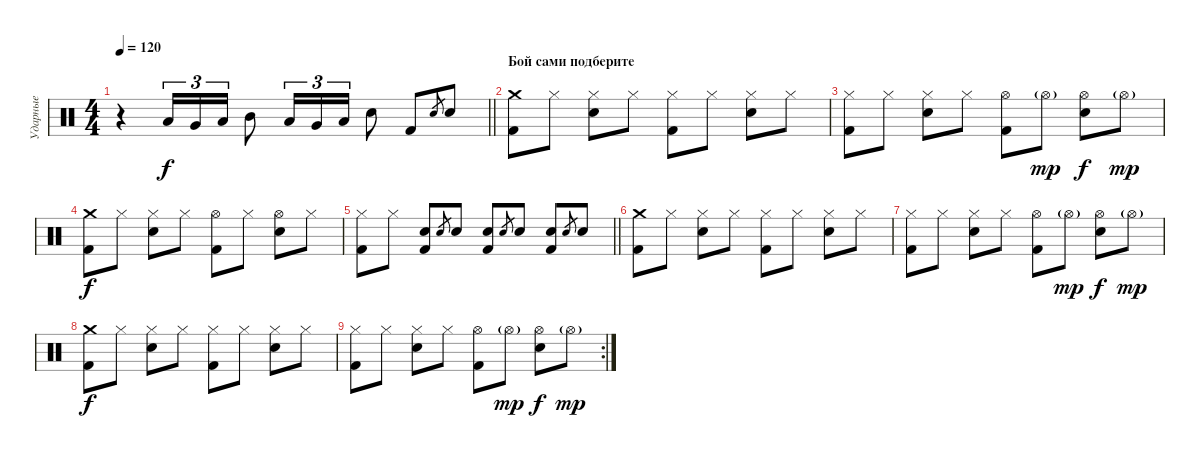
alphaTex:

\track ("Ударные" "Ударные") {instrument percussion}
\staff {score}
\articulation defaults
\ts (4 4)
\tempo 120
\clef neutral
\barLineRight lightlight
\ks c
r.4{dy f} "Low Floor Tom (hit)".16{tu (3 2)} "Very Low Tom (hit)".16{tu (3 2)} "Low Tom (hit)".16{tu (3 2)} "Mid Tom (hit)".8 "Low Floor Tom (hit)".16{tu (3 2)} "Very Low Tom (hit)".16{tu (3 2)} "Low Tom (hit)".16{tu (3 2)} "Electric Snare (hit)".8 "Kick (hit) 2".8 "Electric Snare (hit)".8{gr} "Electric Snare (hit)".8 |
\section ("" "Бой сами подберите")
("Crash medium (hit)" "Kick (hit) 2").8 "Hi-Hat (closed)".8 ("Snare (hit) 2" "Hi-Hat (closed)").8 "Hi-Hat (closed)".8 ("Kick (hit) 2" "Hi-Hat (closed)").8 "Hi-Hat (closed)".8 ("Snare (hit) 2" "Hi-Hat (closed)").8 "Hi-Hat (closed)".8 |
("Kick (hit) 2" "Hi-Hat (closed)").8 "Hi-Hat (closed)".8 ("Snare (hit) 2" "Hi-Hat (closed)").8 "Hi-Hat (closed)".8 ("Kick (hit) 2" "Hi-Hat (open)").8 "Hi-Hat (open)"{g}.8{dy mp} ("Snare (hit) 2" "Hi-Hat (open)").8{dy f} "Hi-Hat (open)"{g}.8{dy mp} |
("Crash medium (hit)" "Kick (hit) 2").8{dy f} "Hi-Hat (closed)".8 ("Snare (hit) 2" "Hi-Hat (closed)").8 "Hi-Hat (closed)".8 ("Kick (hit) 2" "Hi-Hat (open)").8 "Hi-Hat (closed)".8 ("Snare (hit) 2" "Hi-Hat (open)").8 "Hi-Hat (closed)".8 |
\barLineRight lightlight
("Kick (hit) 2" "Hi-Hat (closed)").8 "Hi-Hat (closed)".8 ("Snare (hit) 2" "Kick (hit) 2").8 "Electric Snare (hit)".8{gr} "Electric Snare (hit)".8 ("Snare (hit) 2" "Kick (hit) 2").8 "Electric Snare (hit)".8{gr} "Electric Snare (hit)".8 ("Snare (hit) 2" "Kick (hit) 2").8 "Electric Snare (hit)".8{gr} "Electric Snare (hit)".8 |
("Crash medium (hit)" "Kick (hit) 2").8 "Hi-Hat (closed)".8 ("Snare (hit) 2" "Hi-Hat (closed)").8 "Hi-Hat (closed)".8 ("Kick (hit) 2" "Hi-Hat (closed)").8 "Hi-Hat (closed)".8 ("Snare (hit) 2" "Hi-Hat (closed)").8 "Hi-Hat (closed)".8 |
("Kick (hit) 2" "Hi-Hat (closed)").8 "Hi-Hat (closed)".8 ("Snare (hit) 2" "Hi-Hat (closed)").8 "Hi-Hat (closed)".8 ("Kick (hit) 2" "Hi-Hat (open)").8 "Hi-Hat (open)"{g}.8{dy mp} ("Snare (hit) 2" "Hi-Hat (open)").8{dy f} "Hi-Hat (open)"{g}.8{dy mp} |
("Crash medium (hit)" "Kick (hit) 2").8{dy f} "Hi-Hat (closed)".8 ("Snare (hit) 2" "Hi-Hat (closed)").8 "Hi-Hat (closed)".8 ("Kick (hit) 2" "Hi-Hat (closed)").8 "Hi-Hat (closed)".8 ("Snare (hit) 2" "Hi-Hat (closed)").8 "Hi-Hat (closed)".8 |
\rc 2
("Kick (hit) 2" "Hi-Hat (closed)").8 "Hi-Hat (closed)".8 ("Snare (hit) 2" "Hi-Hat (closed)").8 "Hi-Hat (closed)".8 ("Kick (hit) 2" "Hi-Hat (open)").8 "Hi-Hat (open)"{g}.8{dy mp} ("Snare (hit) 2" "Hi-Hat (open)").8{dy f} "Hi-Hat (open)"{g}.8{dy mp}
